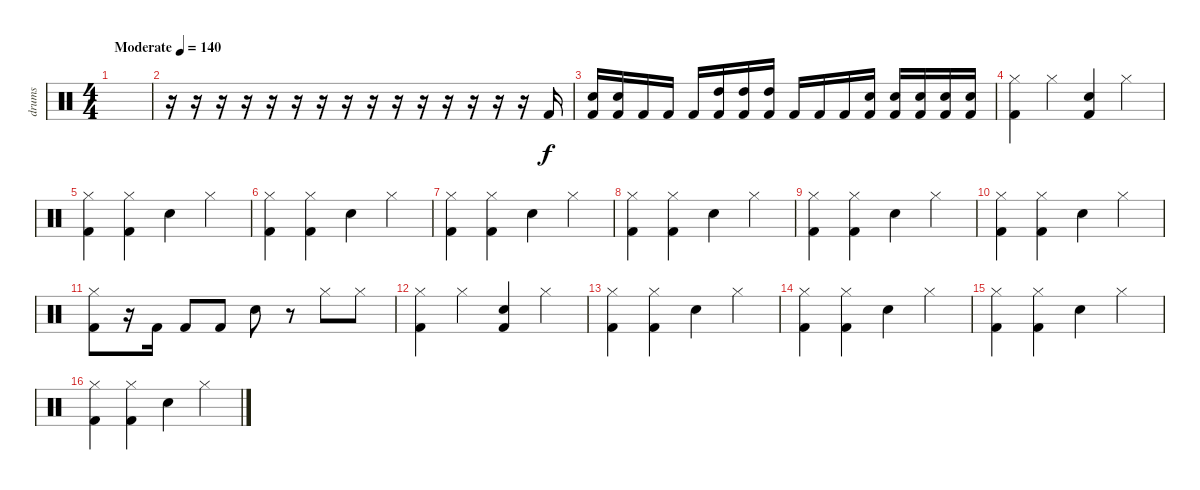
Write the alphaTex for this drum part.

\track ("drums" "drums") {instrument percussion}
\staff {score}
\articulation defaults
\ts (4 4)
\tempo (140 "Moderate")
\clef neutral
\ks c
|
r.16 r.16 r.16 r.16 r.16 r.16 r.16 r.16 r.16 r.16 r.16 r.16 r.16 r.16 r.16 "Kick (hit) 2".16 |
("Kick (hit) 2" "Snare (hit) 2").16 ("Kick (hit) 2" "Snare (hit) 2").16 "Kick (hit) 2".16 "Kick (hit) 2".16 "Kick (hit) 2".16 ("Kick (hit) 2" "High Tom (hit)").16 ("Kick (hit) 2" "High Tom (hit)").16 ("Kick (hit) 2" "High Tom (hit)").16 "Kick (hit) 2".16 "Kick (hit) 2".16 "Kick (hit) 2".16 ("Kick (hit) 2" "Snare (hit) 2").16 ("Kick (hit) 2" "Snare (hit) 2").16 ("Kick (hit) 2" "Snare (hit) 2").16 ("Snare (hit) 2" "Kick (hit) 2").16 ("Snare (hit) 2" "Kick (hit) 2").16 |
("Hi-Hat (closed)" "Kick (hit) 2").4 "Hi-Hat (closed)".4 ("Snare (hit) 2" "Kick (hit) 2").4 "Hi-Hat (closed)".4 |
("Hi-Hat (closed)" "Kick (hit) 2").4 ("Hi-Hat (closed)" "Kick (hit) 2").4 "Snare (hit) 2".4 "Hi-Hat (closed)".4 |
("Hi-Hat (closed)" "Kick (hit) 2").4 ("Hi-Hat (closed)" "Kick (hit) 2").4 "Snare (hit) 2".4 "Hi-Hat (closed)".4 |
("Hi-Hat (closed)" "Kick (hit) 2").4 ("Hi-Hat (closed)" "Kick (hit) 2").4 "Snare (hit) 2".4 "Hi-Hat (closed)".4 |
("Hi-Hat (closed)" "Kick (hit) 2").4 ("Hi-Hat (closed)" "Kick (hit) 2").4 "Snare (hit) 2".4 "Hi-Hat (closed)".4 |
("Hi-Hat (closed)" "Kick (hit) 2").4 ("Hi-Hat (closed)" "Kick (hit) 2").4 "Snare (hit) 2".4 "Hi-Hat (closed)".4 |
("Hi-Hat (closed)" "Kick (hit) 2").4 ("Hi-Hat (closed)" "Kick (hit) 2").4 "Snare (hit) 2".4 "Hi-Hat (closed)".4 |
("Hi-Hat (closed)" "Kick (hit) 2").8 r.16 "Kick (hit) 2".16 "Kick (hit) 2".8 "Kick (hit) 2".8 "Snare (hit) 2".8 r.8 "Hi-Hat (closed)".8 "Hi-Hat (closed)".8 |
("Hi-Hat (closed)" "Kick (hit) 2").4 "Hi-Hat (closed)".4 ("Snare (hit) 2" "Kick (hit) 2").4 "Hi-Hat (closed)".4 |
("Hi-Hat (closed)" "Kick (hit) 2").4 ("Hi-Hat (closed)" "Kick (hit) 2").4 "Snare (hit) 2".4 "Hi-Hat (closed)".4 |
("Hi-Hat (closed)" "Kick (hit) 2").4 ("Hi-Hat (closed)" "Kick (hit) 2").4 "Snare (hit) 2".4 "Hi-Hat (closed)".4 |
("Hi-Hat (closed)" "Kick (hit) 2").4 ("Hi-Hat (closed)" "Kick (hit) 2").4 "Snare (hit) 2".4 "Hi-Hat (closed)".4 |
("Hi-Hat (closed)" "Kick (hit) 2").4 ("Hi-Hat (closed)" "Kick (hit) 2").4 "Snare (hit) 2".4 "Hi-Hat (closed)".4
